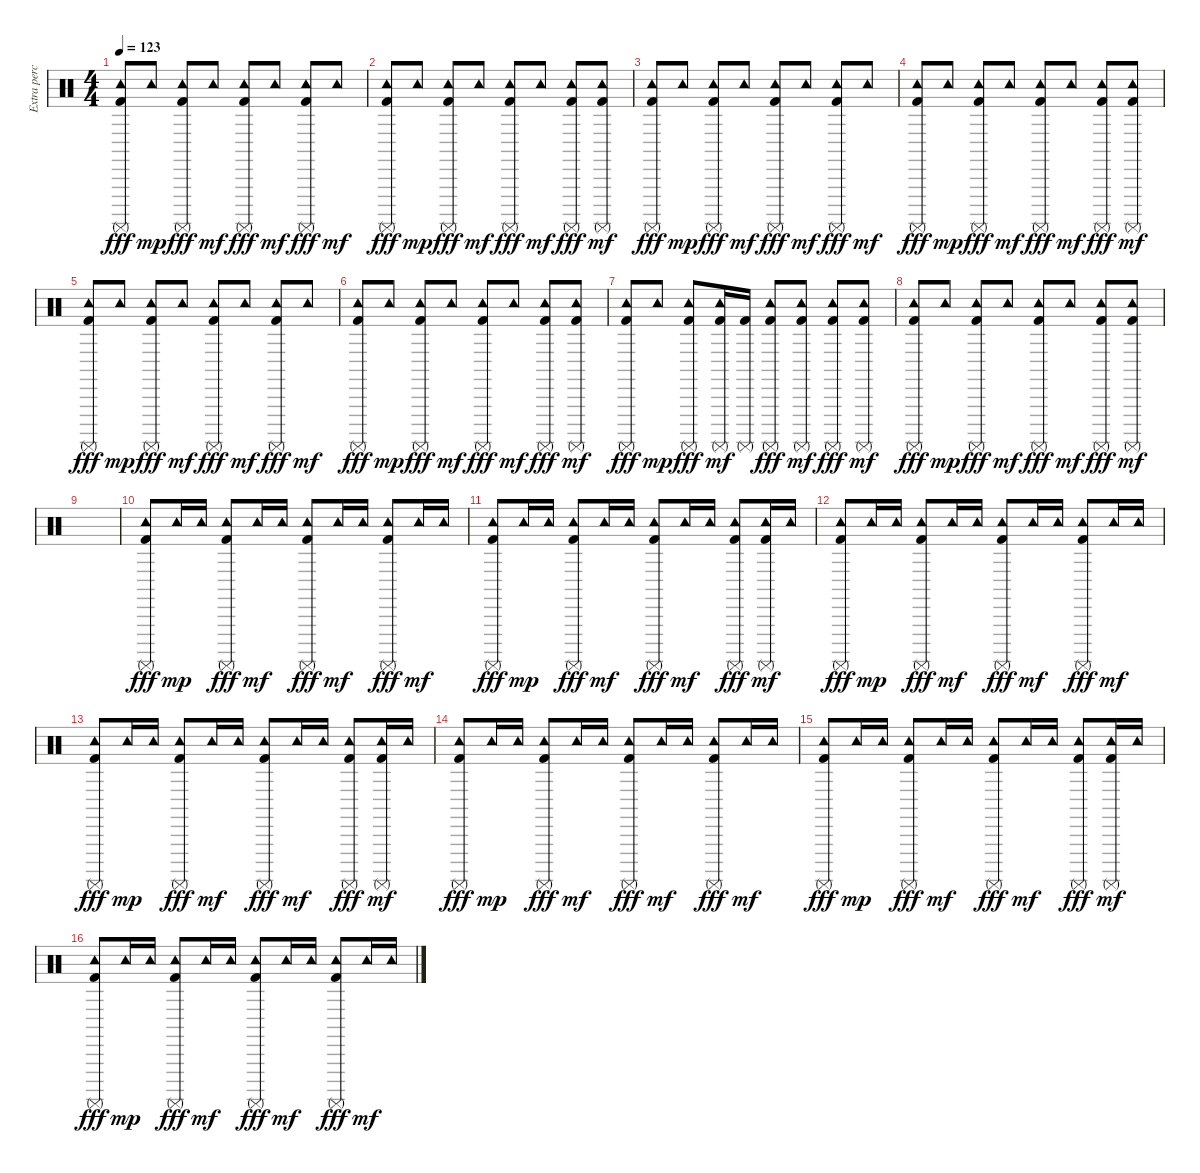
\track ("Extra percussion" "Extra perc") {instrument percussion}
\staff {score}
\articulation defaults
\ts (4 4)
\tempo 123
\clef neutral
\ks c
("Tambourine (hit)" "Surdo (mute)" "Kick (hit) 2").8{dy fff} "Tambourine (hit)".8{dy mp} ("Tambourine (hit)" "Surdo (mute)" "Kick (hit) 2").8{dy fff} "Tambourine (hit)".8{dy mf} ("Tambourine (hit)" "Surdo (mute)" "Kick (hit) 2").8{dy fff} "Tambourine (hit)".8{dy mf} ("Tambourine (hit)" "Surdo (mute)" "Kick (hit) 2").8{dy fff} "Tambourine (hit)".8{dy mf} |
("Tambourine (hit)" "Surdo (mute)" "Kick (hit) 2").8{dy fff} "Tambourine (hit)".8{dy mp} ("Tambourine (hit)" "Surdo (mute)" "Kick (hit) 2").8{dy fff} "Tambourine (hit)".8{dy mf} ("Tambourine (hit)" "Surdo (mute)" "Kick (hit) 2").8{dy fff} "Tambourine (hit)".8{dy mf} ("Tambourine (hit)" "Surdo (mute)" "Kick (hit) 2").8{dy fff} ("Tambourine (hit)" "Surdo (mute)" "Kick (hit) 2").8{dy mf} |
("Tambourine (hit)" "Surdo (mute)" "Kick (hit) 2").8{dy fff} "Tambourine (hit)".8{dy mp} ("Tambourine (hit)" "Surdo (mute)" "Kick (hit) 2").8{dy fff} "Tambourine (hit)".8{dy mf} ("Tambourine (hit)" "Surdo (mute)" "Kick (hit) 2").8{dy fff} "Tambourine (hit)".8{dy mf} ("Tambourine (hit)" "Surdo (mute)" "Kick (hit) 2").8{dy fff} "Tambourine (hit)".8{dy mf} |
("Tambourine (hit)" "Surdo (mute)" "Kick (hit) 2").8{dy fff} "Tambourine (hit)".8{dy mp} ("Tambourine (hit)" "Surdo (mute)" "Kick (hit) 2").8{dy fff} "Tambourine (hit)".8{dy mf} ("Tambourine (hit)" "Surdo (mute)" "Kick (hit) 2").8{dy fff} "Tambourine (hit)".8{dy mf} ("Tambourine (hit)" "Surdo (mute)" "Kick (hit) 2").8{dy fff} ("Tambourine (hit)" "Surdo (mute)" "Kick (hit) 2").8{dy mf} |
("Tambourine (hit)" "Surdo (mute)" "Kick (hit) 2").8{dy fff} "Tambourine (hit)".8{dy mp} ("Tambourine (hit)" "Surdo (mute)" "Kick (hit) 2").8{dy fff} "Tambourine (hit)".8{dy mf} ("Tambourine (hit)" "Surdo (mute)" "Kick (hit) 2").8{dy fff} "Tambourine (hit)".8{dy mf} ("Tambourine (hit)" "Surdo (mute)" "Kick (hit) 2").8{dy fff} "Tambourine (hit)".8{dy mf} |
("Tambourine (hit)" "Surdo (mute)" "Kick (hit) 2").8{dy fff} "Tambourine (hit)".8{dy mp} ("Tambourine (hit)" "Surdo (mute)" "Kick (hit) 2").8{dy fff} "Tambourine (hit)".8{dy mf} ("Tambourine (hit)" "Surdo (mute)" "Kick (hit) 2").8{dy fff} "Tambourine (hit)".8{dy mf} ("Tambourine (hit)" "Surdo (mute)" "Kick (hit) 2").8{dy fff} ("Tambourine (hit)" "Surdo (mute)" "Kick (hit) 2").8{dy mf} |
("Tambourine (hit)" "Surdo (mute)" "Kick (hit) 2").8{dy fff} "Tambourine (hit)".8{dy mp} ("Tambourine (hit)" "Surdo (mute)" "Kick (hit) 2").8{dy fff} ("Tambourine (hit)" "Surdo (mute)" "Kick (hit) 2").16{dy mf} ("Surdo (mute)" "Kick (hit) 2").16 ("Tambourine (hit)" "Surdo (mute)" "Kick (hit) 2").8{dy fff} ("Tambourine (hit)" "Surdo (mute)" "Kick (hit) 2").8{dy mf} ("Tambourine (hit)" "Surdo (mute)" "Kick (hit) 2").8{dy fff} ("Tambourine (hit)" "Surdo (mute)" "Kick (hit) 2").8{dy mf} |
("Tambourine (hit)" "Surdo (mute)" "Kick (hit) 2").8{dy fff} "Tambourine (hit)".8{dy mp} ("Tambourine (hit)" "Surdo (mute)" "Kick (hit) 2").8{dy fff} "Tambourine (hit)".8{dy mf} ("Tambourine (hit)" "Surdo (mute)" "Kick (hit) 2").8{dy fff} "Tambourine (hit)".8{dy mf} ("Tambourine (hit)" "Surdo (mute)" "Kick (hit) 2").8{dy fff} ("Tambourine (hit)" "Surdo (mute)" "Kick (hit) 2").8{dy mf} |
|
("Tambourine (hit)" "Surdo (mute)" "Kick (hit) 2").8{dy fff} "Tambourine (hit)".16{dy mp} "Tambourine (hit)".16 ("Tambourine (hit)" "Surdo (mute)" "Kick (hit) 2").8{dy fff} "Tambourine (hit)".16{dy mf} "Tambourine (hit)".16 ("Tambourine (hit)" "Surdo (mute)" "Kick (hit) 2").8{dy fff} "Tambourine (hit)".16{dy mf} "Tambourine (hit)".16 ("Tambourine (hit)" "Surdo (mute)" "Kick (hit) 2").8{dy fff} "Tambourine (hit)".16{dy mf} "Tambourine (hit)".16 |
("Tambourine (hit)" "Surdo (mute)" "Kick (hit) 2").8{dy fff} "Tambourine (hit)".16{dy mp} "Tambourine (hit)".16 ("Tambourine (hit)" "Surdo (mute)" "Kick (hit) 2").8{dy fff} "Tambourine (hit)".16{dy mf} "Tambourine (hit)".16 ("Tambourine (hit)" "Surdo (mute)" "Kick (hit) 2").8{dy fff} "Tambourine (hit)".16{dy mf} "Tambourine (hit)".16 ("Tambourine (hit)" "Surdo (mute)" "Kick (hit) 2").8{dy fff} ("Tambourine (hit)" "Surdo (mute)" "Kick (hit) 2").16{dy mf} "Tambourine (hit)".16 |
("Tambourine (hit)" "Surdo (mute)" "Kick (hit) 2").8{dy fff} "Tambourine (hit)".16{dy mp} "Tambourine (hit)".16 ("Tambourine (hit)" "Surdo (mute)" "Kick (hit) 2").8{dy fff} "Tambourine (hit)".16{dy mf} "Tambourine (hit)".16 ("Tambourine (hit)" "Surdo (mute)" "Kick (hit) 2").8{dy fff} "Tambourine (hit)".16{dy mf} "Tambourine (hit)".16 ("Tambourine (hit)" "Surdo (mute)" "Kick (hit) 2").8{dy fff} "Tambourine (hit)".16{dy mf} "Tambourine (hit)".16 |
("Tambourine (hit)" "Surdo (mute)" "Kick (hit) 2").8{dy fff} "Tambourine (hit)".16{dy mp} "Tambourine (hit)".16 ("Tambourine (hit)" "Surdo (mute)" "Kick (hit) 2").8{dy fff} "Tambourine (hit)".16{dy mf} "Tambourine (hit)".16 ("Tambourine (hit)" "Surdo (mute)" "Kick (hit) 2").8{dy fff} "Tambourine (hit)".16{dy mf} "Tambourine (hit)".16 ("Tambourine (hit)" "Surdo (mute)" "Kick (hit) 2").8{dy fff} ("Tambourine (hit)" "Surdo (mute)" "Kick (hit) 2").16{dy mf} "Tambourine (hit)".16 |
("Tambourine (hit)" "Surdo (mute)" "Kick (hit) 2").8{dy fff} "Tambourine (hit)".16{dy mp} "Tambourine (hit)".16 ("Tambourine (hit)" "Surdo (mute)" "Kick (hit) 2").8{dy fff} "Tambourine (hit)".16{dy mf} "Tambourine (hit)".16 ("Tambourine (hit)" "Surdo (mute)" "Kick (hit) 2").8{dy fff} "Tambourine (hit)".16{dy mf} "Tambourine (hit)".16 ("Tambourine (hit)" "Surdo (mute)" "Kick (hit) 2").8{dy fff} "Tambourine (hit)".16{dy mf} "Tambourine (hit)".16 |
("Tambourine (hit)" "Surdo (mute)" "Kick (hit) 2").8{dy fff} "Tambourine (hit)".16{dy mp} "Tambourine (hit)".16 ("Tambourine (hit)" "Surdo (mute)" "Kick (hit) 2").8{dy fff} "Tambourine (hit)".16{dy mf} "Tambourine (hit)".16 ("Tambourine (hit)" "Surdo (mute)" "Kick (hit) 2").8{dy fff} "Tambourine (hit)".16{dy mf} "Tambourine (hit)".16 ("Tambourine (hit)" "Surdo (mute)" "Kick (hit) 2").8{dy fff} ("Tambourine (hit)" "Surdo (mute)" "Kick (hit) 2").16{dy mf} "Tambourine (hit)".16 |
("Tambourine (hit)" "Surdo (mute)" "Kick (hit) 2").8{dy fff} "Tambourine (hit)".16{dy mp} "Tambourine (hit)".16 ("Tambourine (hit)" "Surdo (mute)" "Kick (hit) 2").8{dy fff} "Tambourine (hit)".16{dy mf} "Tambourine (hit)".16 ("Tambourine (hit)" "Surdo (mute)" "Kick (hit) 2").8{dy fff} "Tambourine (hit)".16{dy mf} "Tambourine (hit)".16 ("Tambourine (hit)" "Surdo (mute)" "Kick (hit) 2").8{dy fff} "Tambourine (hit)".16{dy mf} "Tambourine (hit)".16
